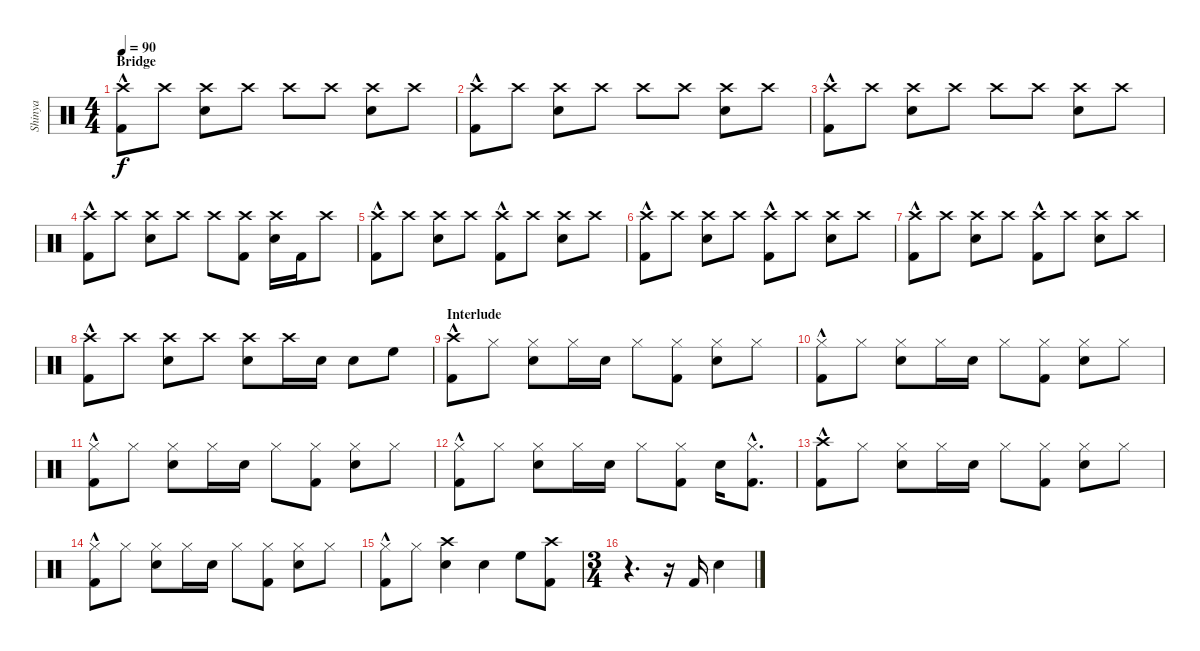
\track ("Shinya" "Shinya") {instrument percussion}
\staff {score}
\articulation defaults
\ts (4 4)
\section ("" "Bridge")
\tempo 90
\clef neutral
\ks c
("Kick (hit) 2"{hac} "Crash high (hit)").8{dy f} "Crash high (hit)".8 ("Snare (hit) 2" "Crash high (hit)").8 "Crash high (hit)".8 "Crash high (hit)".8 "Crash high (hit)".8 ("Snare (hit) 2" "Crash high (hit)").8 "Crash high (hit)".8 |
("Kick (hit) 2"{hac} "Crash high (hit)").8 "Crash high (hit)".8 ("Snare (hit) 2" "Crash high (hit)").8 "Crash high (hit)".8 "Crash high (hit)".8 "Crash high (hit)".8 ("Snare (hit) 2" "Crash high (hit)").8 "Crash high (hit)".8 |
("Kick (hit) 2"{hac} "Crash high (hit)").8 "Crash high (hit)".8 ("Snare (hit) 2" "Crash high (hit)").8 "Crash high (hit)".8 "Crash high (hit)".8 "Crash high (hit)".8 ("Snare (hit) 2" "Crash high (hit)").8 "Crash high (hit)".8 |
("Kick (hit) 2"{hac} "Crash high (hit)").8 "Crash high (hit)".8 ("Snare (hit) 2" "Crash high (hit)").8 "Crash high (hit)".8 "Crash high (hit)".8 ("Kick (hit) 2" "Crash high (hit)").8 ("Snare (hit) 2" "Crash high (hit)").16 "Kick (hit) 2".16 "Crash high (hit)".8 |
("Kick (hit) 2"{hac} "Crash high (hit)").8 "Crash high (hit)".8 ("Snare (hit) 2" "Crash high (hit)").8 "Crash high (hit)".8 ("Kick (hit) 2"{hac} "Crash high (hit)").8 "Crash high (hit)".8 ("Snare (hit) 2" "Crash high (hit)").8 "Crash high (hit)".8 |
("Kick (hit) 2"{hac} "Crash high (hit)").8 "Crash high (hit)".8 ("Snare (hit) 2" "Crash high (hit)").8 "Crash high (hit)".8 ("Kick (hit) 2"{hac} "Crash high (hit)").8 "Crash high (hit)".8 ("Snare (hit) 2" "Crash high (hit)").8 "Crash high (hit)".8 |
("Kick (hit) 2"{hac} "Crash high (hit)").8 "Crash high (hit)".8 ("Snare (hit) 2" "Crash high (hit)").8 "Crash high (hit)".8 ("Kick (hit) 2"{hac} "Crash high (hit)").8 "Crash high (hit)".8 ("Snare (hit) 2" "Crash high (hit)").8 "Crash high (hit)".8 |
("Kick (hit) 2"{hac} "Crash high (hit)").8 "Crash high (hit)".8 ("Snare (hit) 2" "Crash high (hit)").8 "Crash high (hit)".8 ("Snare (hit) 2" "Crash high (hit)").8 "Crash high (hit)".16 "Snare (hit) 2".16 "Snare (hit) 2".8 "High Floor Tom (hit)".8 |
\section ("" "Interlude")
("Kick (hit) 2"{hac} "Crash high (hit)").8 "Hi-Hat (closed)".8 ("Snare (hit) 2" "Hi-Hat (closed)").8 "Hi-Hat (closed)".16 "Snare (hit) 2".16 "Hi-Hat (closed)".8 ("Kick (hit) 2" "Hi-Hat (closed)").8 ("Snare (hit) 2" "Hi-Hat (closed)").8 "Hi-Hat (closed)".8 |
("Kick (hit) 2"{hac} "Hi-Hat (closed)").8 "Hi-Hat (closed)".8 ("Snare (hit) 2" "Hi-Hat (closed)").8 "Hi-Hat (closed)".16 "Snare (hit) 2".16 "Hi-Hat (closed)".8 ("Kick (hit) 2" "Hi-Hat (closed)").8 ("Snare (hit) 2" "Hi-Hat (closed)").8 "Hi-Hat (closed)".8 |
("Kick (hit) 2"{hac} "Hi-Hat (closed)").8 "Hi-Hat (closed)".8 ("Snare (hit) 2" "Hi-Hat (closed)").8 "Hi-Hat (closed)".16 "Snare (hit) 2".16 "Hi-Hat (closed)".8 ("Kick (hit) 2" "Hi-Hat (closed)").8 ("Snare (hit) 2" "Hi-Hat (closed)").8 "Hi-Hat (closed)".8 |
("Kick (hit) 2"{hac} "Hi-Hat (closed)").8 "Hi-Hat (closed)".8 ("Snare (hit) 2" "Hi-Hat (closed)").8 "Hi-Hat (closed)".16 "Snare (hit) 2".16 "Hi-Hat (closed)".8 ("Kick (hit) 2" "Hi-Hat (closed)").8 "Snare (hit) 2".16 ("Kick (hit) 2"{hac} "Hi-Hat (closed)"{hac}).8{d} |
("Kick (hit) 2"{hac} "Crash high (hit)").8 "Hi-Hat (closed)".8 ("Snare (hit) 2" "Hi-Hat (closed)").8 "Hi-Hat (closed)".16 "Snare (hit) 2".16 "Hi-Hat (closed)".8 ("Kick (hit) 2" "Hi-Hat (closed)").8 ("Snare (hit) 2" "Hi-Hat (closed)").8 "Hi-Hat (closed)".8 |
("Kick (hit) 2"{hac} "Hi-Hat (closed)").8 "Hi-Hat (closed)".8 ("Snare (hit) 2" "Hi-Hat (closed)").8 "Hi-Hat (closed)".16 "Snare (hit) 2".16 "Hi-Hat (closed)".8 ("Kick (hit) 2" "Hi-Hat (closed)").8 ("Snare (hit) 2" "Hi-Hat (closed)").8 "Hi-Hat (closed)".8 |
("Kick (hit) 2"{hac} "Hi-Hat (closed)").8 "Hi-Hat (closed)".8 ("Snare (hit) 2" "Crash high (hit)").4 "Snare (hit) 2".4 "High Floor Tom (hit)".8 ("Kick (hit) 2" "Crash high (hit)").8 |
\ts (3 4)
r.4{d} r.16 "Kick (hit) 2".16 "Snare (hit) 2".4
